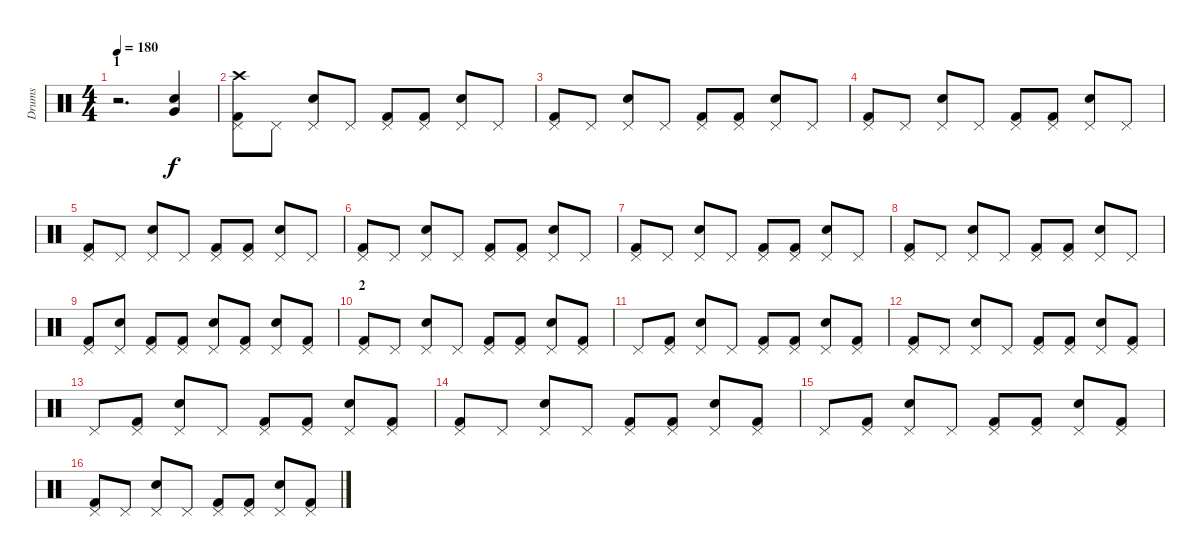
\track ("Drums" "Drums") {instrument percussion}
\staff {score}
\articulation defaults
\ts (4 4)
\section ("" "1")
\tempo 180
\clef neutral
\ks c
r.2{d dy f} ("Very Low Tom (hit)" "Electric Snare (hit)").4 |
("Crash high (hit)" "Pedal Hi-Hat (hit)" "Kick (hit) 2").8 "Pedal Hi-Hat (hit)".8 ("Pedal Hi-Hat (hit)" "Electric Snare (hit)").8 "Pedal Hi-Hat (hit)".8 ("Pedal Hi-Hat (hit)" "Kick (hit) 2").8 ("Pedal Hi-Hat (hit)" "Kick (hit) 2").8 ("Pedal Hi-Hat (hit)" "Electric Snare (hit)").8 "Pedal Hi-Hat (hit)".8 |
("Pedal Hi-Hat (hit)" "Kick (hit) 2").8 "Pedal Hi-Hat (hit)".8 ("Pedal Hi-Hat (hit)" "Electric Snare (hit)").8 "Pedal Hi-Hat (hit)".8 ("Pedal Hi-Hat (hit)" "Kick (hit) 2").8 ("Pedal Hi-Hat (hit)" "Kick (hit) 2").8 ("Pedal Hi-Hat (hit)" "Electric Snare (hit)").8 "Pedal Hi-Hat (hit)".8 |
("Pedal Hi-Hat (hit)" "Kick (hit) 2").8 "Pedal Hi-Hat (hit)".8 ("Pedal Hi-Hat (hit)" "Electric Snare (hit)").8 "Pedal Hi-Hat (hit)".8 ("Pedal Hi-Hat (hit)" "Kick (hit) 2").8 ("Pedal Hi-Hat (hit)" "Kick (hit) 2").8 ("Pedal Hi-Hat (hit)" "Electric Snare (hit)").8 "Pedal Hi-Hat (hit)".8 |
("Pedal Hi-Hat (hit)" "Kick (hit) 2").8 "Pedal Hi-Hat (hit)".8 ("Pedal Hi-Hat (hit)" "Electric Snare (hit)").8 "Pedal Hi-Hat (hit)".8 ("Pedal Hi-Hat (hit)" "Kick (hit) 2").8 ("Pedal Hi-Hat (hit)" "Kick (hit) 2").8 ("Pedal Hi-Hat (hit)" "Electric Snare (hit)").8 "Pedal Hi-Hat (hit)".8 |
("Pedal Hi-Hat (hit)" "Kick (hit) 2").8 "Pedal Hi-Hat (hit)".8 ("Pedal Hi-Hat (hit)" "Electric Snare (hit)").8 "Pedal Hi-Hat (hit)".8 ("Pedal Hi-Hat (hit)" "Kick (hit) 2").8 ("Pedal Hi-Hat (hit)" "Kick (hit) 2").8 ("Pedal Hi-Hat (hit)" "Electric Snare (hit)").8 "Pedal Hi-Hat (hit)".8 |
("Pedal Hi-Hat (hit)" "Kick (hit) 2").8 "Pedal Hi-Hat (hit)".8 ("Pedal Hi-Hat (hit)" "Electric Snare (hit)").8 "Pedal Hi-Hat (hit)".8 ("Pedal Hi-Hat (hit)" "Kick (hit) 2").8 ("Pedal Hi-Hat (hit)" "Kick (hit) 2").8 ("Pedal Hi-Hat (hit)" "Electric Snare (hit)").8 "Pedal Hi-Hat (hit)".8 |
("Pedal Hi-Hat (hit)" "Kick (hit) 2").8 "Pedal Hi-Hat (hit)".8 ("Pedal Hi-Hat (hit)" "Electric Snare (hit)").8 "Pedal Hi-Hat (hit)".8 ("Pedal Hi-Hat (hit)" "Kick (hit) 2").8 ("Pedal Hi-Hat (hit)" "Kick (hit) 2").8 ("Pedal Hi-Hat (hit)" "Electric Snare (hit)").8 "Pedal Hi-Hat (hit)".8 |
("Pedal Hi-Hat (hit)" "Kick (hit) 2").8 ("Pedal Hi-Hat (hit)" "Electric Snare (hit)").8 ("Pedal Hi-Hat (hit)" "Kick (hit) 2").8 ("Pedal Hi-Hat (hit)" "Kick (hit) 2").8 ("Pedal Hi-Hat (hit)" "Electric Snare (hit)").8 ("Pedal Hi-Hat (hit)" "Kick (hit) 2").8 ("Pedal Hi-Hat (hit)" "Electric Snare (hit)").8 ("Pedal Hi-Hat (hit)" "Kick (hit) 2").8 |
\section ("" "2")
("Pedal Hi-Hat (hit)" "Kick (hit) 2").8 "Pedal Hi-Hat (hit)".8 ("Pedal Hi-Hat (hit)" "Electric Snare (hit)").8 "Pedal Hi-Hat (hit)".8 ("Pedal Hi-Hat (hit)" "Kick (hit) 2").8 ("Pedal Hi-Hat (hit)" "Kick (hit) 2").8 ("Pedal Hi-Hat (hit)" "Electric Snare (hit)").8 ("Pedal Hi-Hat (hit)" "Kick (hit) 2").8 |
"Pedal Hi-Hat (hit)".8 ("Pedal Hi-Hat (hit)" "Kick (hit) 2").8 ("Pedal Hi-Hat (hit)" "Electric Snare (hit)").8 "Pedal Hi-Hat (hit)".8 ("Pedal Hi-Hat (hit)" "Kick (hit) 2").8 ("Pedal Hi-Hat (hit)" "Kick (hit) 2").8 ("Pedal Hi-Hat (hit)" "Electric Snare (hit)").8 ("Pedal Hi-Hat (hit)" "Kick (hit) 2").8 |
("Pedal Hi-Hat (hit)" "Kick (hit) 2").8 "Pedal Hi-Hat (hit)".8 ("Pedal Hi-Hat (hit)" "Electric Snare (hit)").8 "Pedal Hi-Hat (hit)".8 ("Pedal Hi-Hat (hit)" "Kick (hit) 2").8 ("Pedal Hi-Hat (hit)" "Kick (hit) 2").8 ("Pedal Hi-Hat (hit)" "Electric Snare (hit)").8 ("Pedal Hi-Hat (hit)" "Kick (hit) 2").8 |
"Pedal Hi-Hat (hit)".8 ("Pedal Hi-Hat (hit)" "Kick (hit) 2").8 ("Pedal Hi-Hat (hit)" "Electric Snare (hit)").8 "Pedal Hi-Hat (hit)".8 ("Pedal Hi-Hat (hit)" "Kick (hit) 2").8 ("Pedal Hi-Hat (hit)" "Kick (hit) 2").8 ("Pedal Hi-Hat (hit)" "Electric Snare (hit)").8 ("Pedal Hi-Hat (hit)" "Kick (hit) 2").8 |
("Pedal Hi-Hat (hit)" "Kick (hit) 2").8 "Pedal Hi-Hat (hit)".8 ("Pedal Hi-Hat (hit)" "Electric Snare (hit)").8 "Pedal Hi-Hat (hit)".8 ("Pedal Hi-Hat (hit)" "Kick (hit) 2").8 ("Pedal Hi-Hat (hit)" "Kick (hit) 2").8 ("Pedal Hi-Hat (hit)" "Electric Snare (hit)").8 ("Pedal Hi-Hat (hit)" "Kick (hit) 2").8 |
"Pedal Hi-Hat (hit)".8 ("Pedal Hi-Hat (hit)" "Kick (hit) 2").8 ("Pedal Hi-Hat (hit)" "Electric Snare (hit)").8 "Pedal Hi-Hat (hit)".8 ("Pedal Hi-Hat (hit)" "Kick (hit) 2").8 ("Pedal Hi-Hat (hit)" "Kick (hit) 2").8 ("Pedal Hi-Hat (hit)" "Electric Snare (hit)").8 ("Pedal Hi-Hat (hit)" "Kick (hit) 2").8 |
("Pedal Hi-Hat (hit)" "Kick (hit) 2").8 "Pedal Hi-Hat (hit)".8 ("Pedal Hi-Hat (hit)" "Electric Snare (hit)").8 "Pedal Hi-Hat (hit)".8 ("Pedal Hi-Hat (hit)" "Kick (hit) 2").8 ("Pedal Hi-Hat (hit)" "Kick (hit) 2").8 ("Pedal Hi-Hat (hit)" "Electric Snare (hit)").8 ("Pedal Hi-Hat (hit)" "Kick (hit) 2").8
